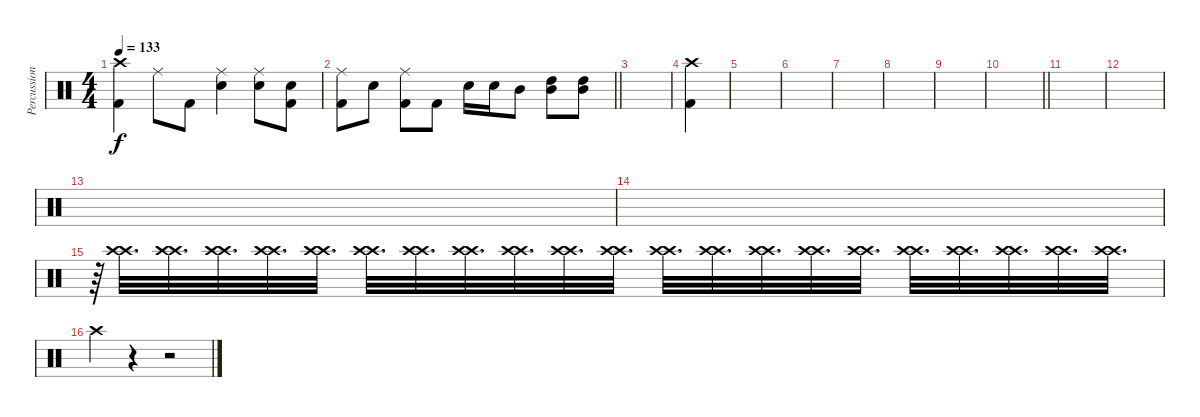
\track ("Percussion" "Percussion") {instrument percussion}
\staff {score}
\articulation defaults
\ts (4 4)
\tempo 133
\clef neutral
\ks c
("Crash high (hit)" "Kick (hit) 2").4{dy f} "Ride (middle)".8 "Kick (hit) 2".8 ("Ride (middle)" "Electric Snare (hit)").4 ("Ride (middle)" "Electric Snare (hit)").8 ("Electric Snare (hit)" "Kick (hit) 2").8 |
\barLineRight lightlight
("Ride (middle)" "Kick (hit) 2").8 "Electric Snare (hit)".8 ("Ride (middle)" "Kick (hit) 2").8 "Kick (hit) 2".8 "Electric Snare (hit)".16 "Electric Snare (hit)".16 "Mid Tom (hit)".8 ("Mid Tom (hit)" "High Tom (hit)").8 ("Mid Tom (hit)" "High Tom (hit)").8 |
|
("Crash high (hit)" "Kick (hit) 2").4 |
|
|
|
|
|
\barLineRight lightlight
|
|
|
|
|
r.64{volume 0} ("Crash high (hit)" "Crash high (hit)").32{d volume 13} ("Crash high (hit)" "Crash high (hit)").32{d} ("Crash high (hit)" "Crash high (hit)").32{d} ("Crash high (hit)" "Crash high (hit)").32{d} ("Crash high (hit)" "Crash high (hit)").32{d} ("Crash high (hit)" "Crash high (hit)").32{d} ("Crash high (hit)" "Crash high (hit)").32{d} ("Crash high (hit)" "Crash high (hit)").32{d} ("Crash high (hit)" "Crash high (hit)").32{d} ("Crash high (hit)" "Crash high (hit)").32{d} ("Crash high (hit)" "Crash high (hit)").32{d} ("Crash high (hit)" "Crash high (hit)").32{d} ("Crash high (hit)" "Crash high (hit)").32{d} ("Crash high (hit)" "Crash high (hit)").32{d} ("Crash high (hit)" "Crash high (hit)").32{d} ("Crash high (hit)" "Crash high (hit)").32{d} ("Crash high (hit)" "Crash high (hit)").32{d} ("Crash high (hit)" "Crash high (hit)").32{d} ("Crash high (hit)" "Crash high (hit)").32{d} ("Crash high (hit)" "Crash high (hit)").32{d} ("Crash high (hit)" "Crash high (hit)").32{d} |
"Crash high (hit)".4 r.4 r.2
